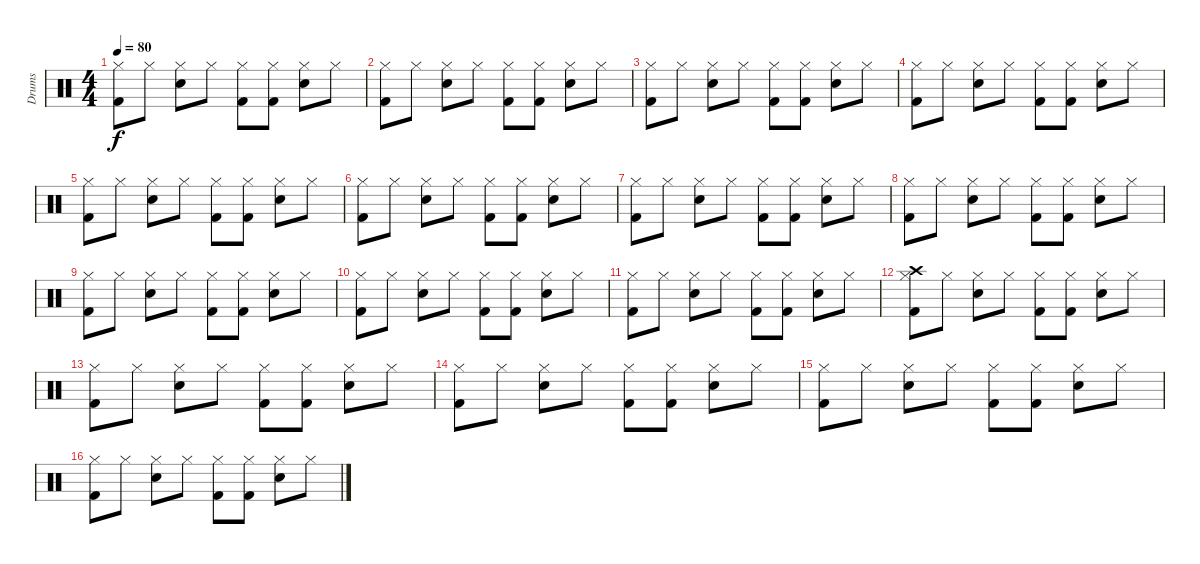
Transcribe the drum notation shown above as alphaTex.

\track ("Drums" "Drums") {instrument percussion}
\staff {score}
\articulation defaults
\ts (4 4)
\tempo 80
\clef neutral
\ks c
("Hi-Hat (closed)" "Kick (hit) 2").8{dy f} "Hi-Hat (closed)".8 ("Hi-Hat (closed)" "Electric Snare (hit)").8 "Hi-Hat (closed)".8 ("Hi-Hat (closed)" "Kick (hit) 2").8 ("Hi-Hat (closed)" "Kick (hit) 2").8 ("Hi-Hat (closed)" "Electric Snare (hit)").8 "Hi-Hat (closed)".8 |
("Hi-Hat (closed)" "Kick (hit) 2").8 "Hi-Hat (closed)".8 ("Hi-Hat (closed)" "Electric Snare (hit)").8 "Hi-Hat (closed)".8 ("Hi-Hat (closed)" "Kick (hit) 2").8 ("Hi-Hat (closed)" "Kick (hit) 2").8 ("Hi-Hat (closed)" "Electric Snare (hit)").8 "Hi-Hat (closed)".8 |
("Hi-Hat (closed)" "Kick (hit) 2").8 "Hi-Hat (closed)".8 ("Hi-Hat (closed)" "Electric Snare (hit)").8 "Hi-Hat (closed)".8 ("Hi-Hat (closed)" "Kick (hit) 2").8 ("Hi-Hat (closed)" "Kick (hit) 2").8 ("Hi-Hat (closed)" "Electric Snare (hit)").8 "Hi-Hat (closed)".8 |
("Hi-Hat (closed)" "Kick (hit) 2").8 "Hi-Hat (closed)".8 ("Hi-Hat (closed)" "Electric Snare (hit)").8 "Hi-Hat (closed)".8 ("Hi-Hat (closed)" "Kick (hit) 2").8 ("Hi-Hat (closed)" "Kick (hit) 2").8 ("Hi-Hat (closed)" "Electric Snare (hit)").8 "Hi-Hat (closed)".8 |
("Hi-Hat (closed)" "Kick (hit) 2").8 "Hi-Hat (closed)".8 ("Hi-Hat (closed)" "Electric Snare (hit)").8 "Hi-Hat (closed)".8 ("Hi-Hat (closed)" "Kick (hit) 2").8 ("Hi-Hat (closed)" "Kick (hit) 2").8 ("Hi-Hat (closed)" "Electric Snare (hit)").8 "Hi-Hat (closed)".8 |
("Hi-Hat (closed)" "Kick (hit) 2").8 "Hi-Hat (closed)".8 ("Hi-Hat (closed)" "Electric Snare (hit)").8 "Hi-Hat (closed)".8 ("Hi-Hat (closed)" "Kick (hit) 2").8 ("Hi-Hat (closed)" "Kick (hit) 2").8 ("Hi-Hat (closed)" "Electric Snare (hit)").8 "Hi-Hat (closed)".8 |
("Hi-Hat (closed)" "Kick (hit) 2").8 "Hi-Hat (closed)".8 ("Hi-Hat (closed)" "Electric Snare (hit)").8 "Hi-Hat (closed)".8 ("Hi-Hat (closed)" "Kick (hit) 2").8 ("Hi-Hat (closed)" "Kick (hit) 2").8 ("Hi-Hat (closed)" "Electric Snare (hit)").8 "Hi-Hat (closed)".8 |
("Hi-Hat (closed)" "Kick (hit) 2").8 "Hi-Hat (closed)".8 ("Hi-Hat (closed)" "Electric Snare (hit)").8 "Hi-Hat (closed)".8 ("Hi-Hat (closed)" "Kick (hit) 2").8 ("Hi-Hat (closed)" "Kick (hit) 2").8 ("Hi-Hat (closed)" "Electric Snare (hit)").8 "Hi-Hat (closed)".8 |
("Hi-Hat (closed)" "Kick (hit) 2").8 "Hi-Hat (closed)".8 ("Hi-Hat (closed)" "Electric Snare (hit)").8 "Hi-Hat (closed)".8 ("Hi-Hat (closed)" "Kick (hit) 2").8 ("Hi-Hat (closed)" "Kick (hit) 2").8 ("Hi-Hat (closed)" "Electric Snare (hit)").8 "Hi-Hat (closed)".8 |
("Hi-Hat (closed)" "Kick (hit) 2").8 "Hi-Hat (closed)".8 ("Hi-Hat (closed)" "Electric Snare (hit)").8 "Hi-Hat (closed)".8 ("Hi-Hat (closed)" "Kick (hit) 2").8 ("Hi-Hat (closed)" "Kick (hit) 2").8 ("Hi-Hat (closed)" "Electric Snare (hit)").8 "Hi-Hat (closed)".8 |
("Hi-Hat (closed)" "Kick (hit) 2").8 "Hi-Hat (closed)".8 ("Hi-Hat (closed)" "Electric Snare (hit)").8 "Hi-Hat (closed)".8 ("Hi-Hat (closed)" "Kick (hit) 2").8 ("Hi-Hat (closed)" "Kick (hit) 2").8 ("Hi-Hat (closed)" "Electric Snare (hit)").8 "Hi-Hat (closed)".8 |
("Crash high (hit)" "Hi-Hat (closed)" "Kick (hit) 2").8 "Hi-Hat (closed)".8 ("Hi-Hat (closed)" "Electric Snare (hit)").8 "Hi-Hat (closed)".8 ("Hi-Hat (closed)" "Kick (hit) 2").8 ("Hi-Hat (closed)" "Kick (hit) 2").8 ("Hi-Hat (closed)" "Electric Snare (hit)").8 "Hi-Hat (closed)".8 |
("Hi-Hat (closed)" "Kick (hit) 2").8 "Hi-Hat (closed)".8 ("Hi-Hat (closed)" "Electric Snare (hit)").8 "Hi-Hat (closed)".8 ("Hi-Hat (closed)" "Kick (hit) 2").8 ("Hi-Hat (closed)" "Kick (hit) 2").8 ("Hi-Hat (closed)" "Electric Snare (hit)").8 "Hi-Hat (closed)".8 |
("Hi-Hat (closed)" "Kick (hit) 2").8 "Hi-Hat (closed)".8 ("Hi-Hat (closed)" "Electric Snare (hit)").8 "Hi-Hat (closed)".8 ("Hi-Hat (closed)" "Kick (hit) 2").8 ("Hi-Hat (closed)" "Kick (hit) 2").8 ("Hi-Hat (closed)" "Electric Snare (hit)").8 "Hi-Hat (closed)".8 |
("Hi-Hat (closed)" "Kick (hit) 2").8 "Hi-Hat (closed)".8 ("Hi-Hat (closed)" "Electric Snare (hit)").8 "Hi-Hat (closed)".8 ("Hi-Hat (closed)" "Kick (hit) 2").8 ("Hi-Hat (closed)" "Kick (hit) 2").8 ("Hi-Hat (closed)" "Electric Snare (hit)").8 "Hi-Hat (closed)".8 |
("Hi-Hat (closed)" "Kick (hit) 2").8 "Hi-Hat (closed)".8 ("Hi-Hat (closed)" "Electric Snare (hit)").8 "Hi-Hat (closed)".8 ("Hi-Hat (closed)" "Kick (hit) 2").8 ("Hi-Hat (closed)" "Kick (hit) 2").8 ("Hi-Hat (closed)" "Electric Snare (hit)").8 "Hi-Hat (closed)".8
